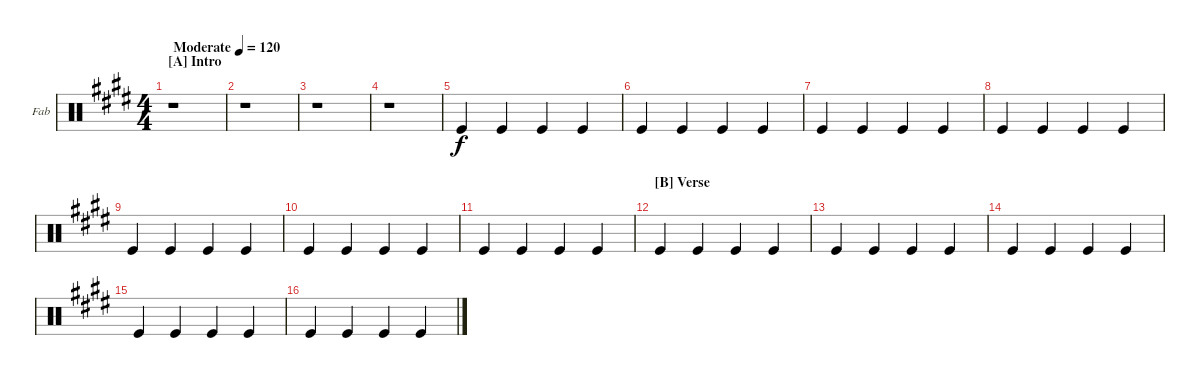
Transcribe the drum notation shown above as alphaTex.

\bracketExtendMode groupsimilarinstruments
\firstSystemTrackNameOrientation horizontal
\otherSystemsTrackNameOrientation horizontal
\track ("Tambourine" "Fab") {instrument percussion}
\staff {score}
\articulation defaults
\ts (4 4)
\beaming (8 2 2 2 2)
\section ("A" "Intro")
\tempo (120 "Moderate")
\clef neutral
\ks e
r.1{dy f} |
r.1 |
r.1 |
r.1 |
"Kick (hit)".4 "Kick (hit)".4 "Kick (hit)".4 "Kick (hit)".4 |
"Kick (hit)".4 "Kick (hit)".4 "Kick (hit)".4 "Kick (hit)".4 |
"Kick (hit)".4 "Kick (hit)".4 "Kick (hit)".4 "Kick (hit)".4 |
"Kick (hit)".4 "Kick (hit)".4 "Kick (hit)".4 "Kick (hit)".4 |
"Kick (hit)".4 "Kick (hit)".4 "Kick (hit)".4 "Kick (hit)".4 |
"Kick (hit)".4 "Kick (hit)".4 "Kick (hit)".4 "Kick (hit)".4 |
"Kick (hit)".4 "Kick (hit)".4 "Kick (hit)".4 "Kick (hit)".4 |
\section ("B" "Verse")
"Kick (hit)".4 "Kick (hit)".4 "Kick (hit)".4 "Kick (hit)".4 |
"Kick (hit)".4 "Kick (hit)".4 "Kick (hit)".4 "Kick (hit)".4 |
"Kick (hit)".4 "Kick (hit)".4 "Kick (hit)".4 "Kick (hit)".4 |
"Kick (hit)".4 "Kick (hit)".4 "Kick (hit)".4 "Kick (hit)".4 |
"Kick (hit)".4 "Kick (hit)".4 "Kick (hit)".4 "Kick (hit)".4
